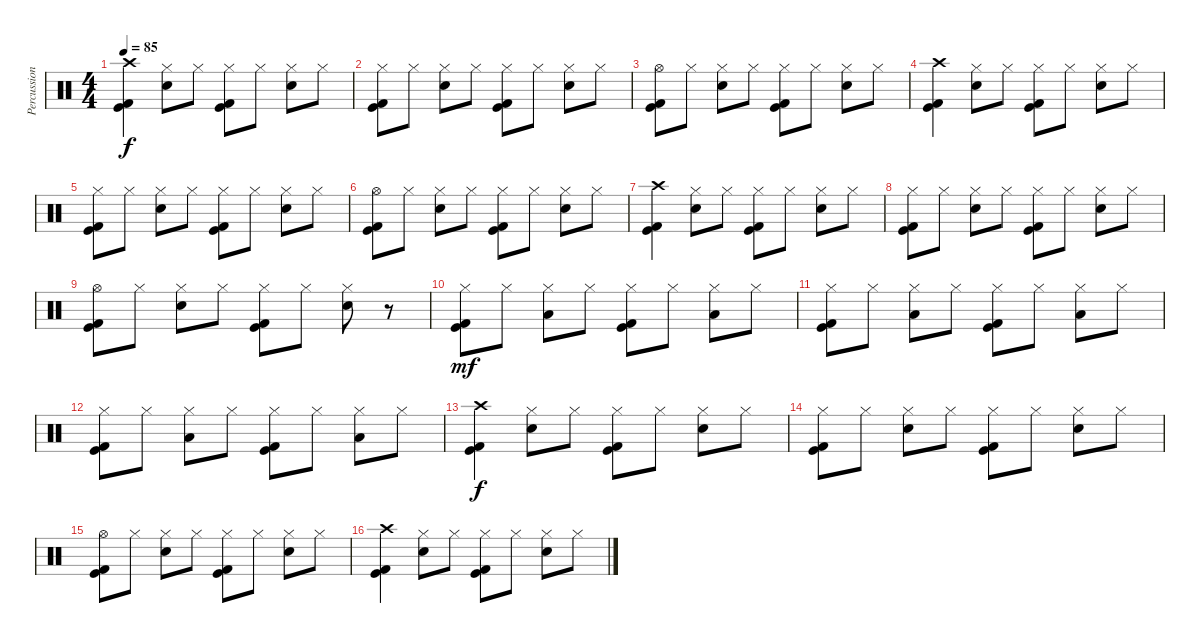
\track ("Percussion" "Percussion") {instrument percussion}
\staff {score}
\articulation defaults
\ts (4 4)
\tempo 85
\clef neutral
\ks c
("Crash high (hit)" "Kick (hit)" "Kick (hit) 2").4{dy f} ("Hi-Hat (closed)" "Snare (hit) 2").8 "Hi-Hat (closed)".8 ("Hi-Hat (closed)" "Kick (hit)" "Kick (hit) 2").8 "Hi-Hat (closed)".8 ("Hi-Hat (closed)" "Snare (hit) 2").8 "Hi-Hat (closed)".8 |
("Hi-Hat (closed)" "Kick (hit)" "Kick (hit) 2").8 "Hi-Hat (closed)".8 ("Hi-Hat (closed)" "Snare (hit) 2").8 "Hi-Hat (closed)".8 ("Hi-Hat (closed)" "Kick (hit)" "Kick (hit) 2").8 "Hi-Hat (closed)".8 ("Hi-Hat (closed)" "Snare (hit) 2").8 "Hi-Hat (closed)".8 |
("Hi-Hat (open)" "Kick (hit)" "Kick (hit) 2").8 "Hi-Hat (closed)".8 ("Hi-Hat (closed)" "Snare (hit) 2").8 "Hi-Hat (closed)".8 ("Hi-Hat (closed)" "Kick (hit)" "Kick (hit) 2").8 "Hi-Hat (closed)".8 ("Hi-Hat (closed)" "Snare (hit) 2").8 "Hi-Hat (closed)".8 |
("Crash high (hit)" "Kick (hit)" "Kick (hit) 2").4 ("Hi-Hat (closed)" "Snare (hit) 2").8 "Hi-Hat (closed)".8 ("Hi-Hat (closed)" "Kick (hit)" "Kick (hit) 2").8 "Hi-Hat (closed)".8 ("Hi-Hat (closed)" "Snare (hit) 2").8 "Hi-Hat (closed)".8 |
("Hi-Hat (closed)" "Kick (hit)" "Kick (hit) 2").8 "Hi-Hat (closed)".8 ("Hi-Hat (closed)" "Snare (hit) 2").8 "Hi-Hat (closed)".8 ("Hi-Hat (closed)" "Kick (hit)" "Kick (hit) 2").8 "Hi-Hat (closed)".8 ("Hi-Hat (closed)" "Snare (hit) 2").8 "Hi-Hat (closed)".8 |
("Hi-Hat (open)" "Kick (hit)" "Kick (hit) 2").8 "Hi-Hat (closed)".8 ("Hi-Hat (closed)" "Snare (hit) 2").8 "Hi-Hat (closed)".8 ("Hi-Hat (closed)" "Kick (hit)" "Kick (hit) 2").8 "Hi-Hat (closed)".8 ("Hi-Hat (closed)" "Snare (hit) 2").8 "Hi-Hat (closed)".8 |
("Crash high (hit)" "Kick (hit)" "Kick (hit) 2").4 ("Hi-Hat (closed)" "Snare (hit) 2").8 "Hi-Hat (closed)".8 ("Hi-Hat (closed)" "Kick (hit)" "Kick (hit) 2").8 "Hi-Hat (closed)".8 ("Hi-Hat (closed)" "Snare (hit) 2").8 "Hi-Hat (closed)".8 |
("Hi-Hat (closed)" "Kick (hit)" "Kick (hit) 2").8 "Hi-Hat (closed)".8 ("Hi-Hat (closed)" "Snare (hit) 2").8 "Hi-Hat (closed)".8 ("Hi-Hat (closed)" "Kick (hit)" "Kick (hit) 2").8 "Hi-Hat (closed)".8 ("Hi-Hat (closed)" "Snare (hit) 2").8 "Hi-Hat (closed)".8 |
("Hi-Hat (open)" "Kick (hit)" "Kick (hit) 2").8 "Hi-Hat (closed)".8 ("Hi-Hat (closed)" "Snare (hit) 2").8 "Hi-Hat (closed)".8 ("Hi-Hat (closed)" "Kick (hit)" "Kick (hit) 2").8 "Hi-Hat (closed)".8 ("Hi-Hat (closed)" "Snare (hit) 2").8 r.8 |
("Hi-Hat (closed)" "Kick (hit)" "Kick (hit) 2").8{dy mf} "Hi-Hat (closed)".8 ("Hi-Hat (closed)" "Low Floor Tom (hit)").8 "Hi-Hat (closed)".8 ("Hi-Hat (closed)" "Kick (hit)" "Kick (hit) 2").8 "Hi-Hat (closed)".8 ("Hi-Hat (closed)" "Low Floor Tom (hit)").8 "Hi-Hat (closed)".8 |
("Hi-Hat (closed)" "Kick (hit)" "Kick (hit) 2").8 "Hi-Hat (closed)".8 ("Hi-Hat (closed)" "Low Floor Tom (hit)").8 "Hi-Hat (closed)".8 ("Hi-Hat (closed)" "Kick (hit)" "Kick (hit) 2").8 "Hi-Hat (closed)".8 ("Hi-Hat (closed)" "Low Floor Tom (hit)").8 "Hi-Hat (closed)".8 |
("Hi-Hat (closed)" "Kick (hit)" "Kick (hit) 2").8 "Hi-Hat (closed)".8 ("Hi-Hat (closed)" "Low Floor Tom (hit)").8 "Hi-Hat (closed)".8 ("Hi-Hat (closed)" "Kick (hit)" "Kick (hit) 2").8 "Hi-Hat (closed)".8 ("Hi-Hat (closed)" "Low Floor Tom (hit)").8 "Hi-Hat (closed)".8 |
("Crash high (hit)" "Kick (hit)" "Kick (hit) 2").4{dy f} ("Hi-Hat (closed)" "Snare (hit) 2").8 "Hi-Hat (closed)".8 ("Hi-Hat (closed)" "Kick (hit)" "Kick (hit) 2").8 "Hi-Hat (closed)".8 ("Hi-Hat (closed)" "Snare (hit) 2").8 "Hi-Hat (closed)".8 |
("Hi-Hat (closed)" "Kick (hit)" "Kick (hit) 2").8 "Hi-Hat (closed)".8 ("Hi-Hat (closed)" "Snare (hit) 2").8 "Hi-Hat (closed)".8 ("Hi-Hat (closed)" "Kick (hit)" "Kick (hit) 2").8 "Hi-Hat (closed)".8 ("Hi-Hat (closed)" "Snare (hit) 2").8 "Hi-Hat (closed)".8 |
("Hi-Hat (open)" "Kick (hit)" "Kick (hit) 2").8 "Hi-Hat (closed)".8 ("Hi-Hat (closed)" "Snare (hit) 2").8 "Hi-Hat (closed)".8 ("Hi-Hat (closed)" "Kick (hit)" "Kick (hit) 2").8 "Hi-Hat (closed)".8 ("Hi-Hat (closed)" "Snare (hit) 2").8 "Hi-Hat (closed)".8 |
("Crash high (hit)" "Kick (hit)" "Kick (hit) 2").4 ("Hi-Hat (closed)" "Snare (hit) 2").8 "Hi-Hat (closed)".8 ("Hi-Hat (closed)" "Kick (hit)" "Kick (hit) 2").8 "Hi-Hat (closed)".8 ("Hi-Hat (closed)" "Snare (hit) 2").8 "Hi-Hat (closed)".8
